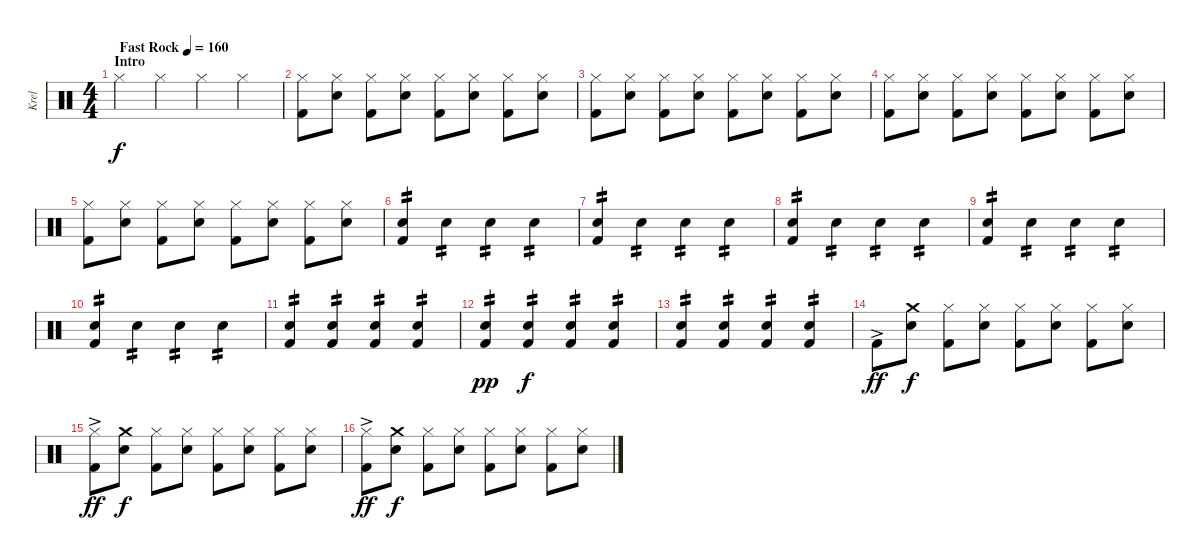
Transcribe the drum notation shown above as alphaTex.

\track ("Krel" "Krel") {instrument percussion}
\staff {score}
\articulation defaults
\ts (4 4)
\section ("" "Intro")
\tempo (160 "Fast Rock")
\clef neutral
\ks c "Hi-Hat (closed)".4{dy f} "Hi-Hat (closed)".4 "Hi-Hat (closed)".4 "Hi-Hat (closed)".4
|
("Hi-Hat (closed)" "Kick (hit) 2").8{volume 7} ("Hi-Hat (closed)" "Snare (hit) 2").8 ("Hi-Hat (closed)" "Kick (hit) 2").8 ("Hi-Hat (closed)" "Snare (hit) 2").8 ("Hi-Hat (closed)" "Kick (hit) 2").8 ("Hi-Hat (closed)" "Snare (hit) 2").8 ("Hi-Hat (closed)" "Kick (hit) 2").8 ("Hi-Hat (closed)" "Snare (hit) 2").8 |
("Hi-Hat (closed)" "Kick (hit) 2").8 ("Hi-Hat (closed)" "Snare (hit) 2").8 ("Hi-Hat (closed)" "Kick (hit) 2").8 ("Hi-Hat (closed)" "Snare (hit) 2").8 ("Hi-Hat (closed)" "Kick (hit) 2").8 ("Hi-Hat (closed)" "Snare (hit) 2").8 ("Hi-Hat (closed)" "Kick (hit) 2").8 ("Hi-Hat (closed)" "Snare (hit) 2").8 |
("Hi-Hat (closed)" "Kick (hit) 2").8 ("Hi-Hat (closed)" "Snare (hit) 2").8 ("Hi-Hat (closed)" "Kick (hit) 2").8 ("Hi-Hat (closed)" "Snare (hit) 2").8 ("Hi-Hat (closed)" "Kick (hit) 2").8 ("Hi-Hat (closed)" "Snare (hit) 2").8 ("Hi-Hat (closed)" "Kick (hit) 2").8 ("Hi-Hat (closed)" "Snare (hit) 2").8 |
("Hi-Hat (closed)" "Kick (hit) 2").8 ("Hi-Hat (closed)" "Snare (hit) 2").8 ("Hi-Hat (closed)" "Kick (hit) 2").8 ("Hi-Hat (closed)" "Snare (hit) 2").8 ("Hi-Hat (closed)" "Kick (hit) 2").8 ("Hi-Hat (closed)" "Snare (hit) 2").8 ("Hi-Hat (closed)" "Kick (hit) 2").8 ("Hi-Hat (closed)" "Snare (hit) 2").8 |
("Snare (hit) 2" "Kick (hit) 2").4{tp 2} "Snare (hit) 2".4{tp 2} "Snare (hit) 2".4{tp 2} "Snare (hit) 2".4{tp 2} |
("Snare (hit) 2" "Kick (hit) 2").4{tp 2} "Snare (hit) 2".4{tp 2} "Snare (hit) 2".4{tp 2} "Snare (hit) 2".4{tp 2} |
("Snare (hit) 2" "Kick (hit) 2").4{tp 2} "Snare (hit) 2".4{tp 2} "Snare (hit) 2".4{tp 2} "Snare (hit) 2".4{tp 2} |
("Snare (hit) 2" "Kick (hit) 2").4{tp 2} "Snare (hit) 2".4{tp 2} "Snare (hit) 2".4{tp 2} "Snare (hit) 2".4{tp 2} |
("Snare (hit) 2" "Kick (hit) 2").4{tp 2} "Snare (hit) 2".4{tp 2} "Snare (hit) 2".4{tp 2} "Snare (hit) 2".4{tp 2} |
("Snare (hit) 2" "Kick (hit) 2").4{tp 2} ("Snare (hit) 2" "Kick (hit) 2").4{tp 2} ("Snare (hit) 2" "Kick (hit) 2").4{tp 2} ("Snare (hit) 2" "Kick (hit) 2").4{tp 2} |
("Snare (hit) 2" "Kick (hit) 2").4{tp 2 dy pp volume 13} ("Snare (hit) 2" "Kick (hit) 2").4{tp 2 dy f} ("Snare (hit) 2" "Kick (hit) 2").4{tp 2} ("Snare (hit) 2" "Kick (hit) 2").4{tp 2} |
("Snare (hit) 2" "Kick (hit) 2").4{tp 2} ("Snare (hit) 2" "Kick (hit) 2").4{tp 2} ("Snare (hit) 2" "Kick (hit) 2").4{tp 2} ("Snare (hit) 2" "Kick (hit) 2").4{tp 2} |
"Kick (hit) 2"{ac}.8{dy ff} ("Crash medium (hit)" "Snare (hit) 2").8{dy f} ("Hi-Hat (closed)" "Kick (hit) 2").8 ("Hi-Hat (closed)" "Snare (hit) 2").8 ("Hi-Hat (closed)" "Kick (hit) 2").8 ("Hi-Hat (closed)" "Snare (hit) 2").8 ("Hi-Hat (closed)" "Kick (hit) 2").8 ("Hi-Hat (closed)" "Snare (hit) 2").8 |
("Hi-Hat (closed)" "Kick (hit) 2"{ac}).8{dy ff} ("Crash medium (hit)" "Snare (hit) 2").8{dy f} ("Hi-Hat (closed)" "Kick (hit) 2").8 ("Hi-Hat (closed)" "Snare (hit) 2").8 ("Hi-Hat (closed)" "Kick (hit) 2").8 ("Hi-Hat (closed)" "Snare (hit) 2").8 ("Hi-Hat (closed)" "Kick (hit) 2").8 ("Hi-Hat (closed)" "Snare (hit) 2").8 |
("Hi-Hat (closed)" "Kick (hit) 2"{ac}).8{dy ff} ("Crash medium (hit)" "Snare (hit) 2").8{dy f} ("Hi-Hat (closed)" "Kick (hit) 2").8 ("Hi-Hat (closed)" "Snare (hit) 2").8 ("Hi-Hat (closed)" "Kick (hit) 2").8 ("Hi-Hat (closed)" "Snare (hit) 2").8 ("Hi-Hat (closed)" "Kick (hit) 2").8 ("Hi-Hat (closed)" "Snare (hit) 2").8
